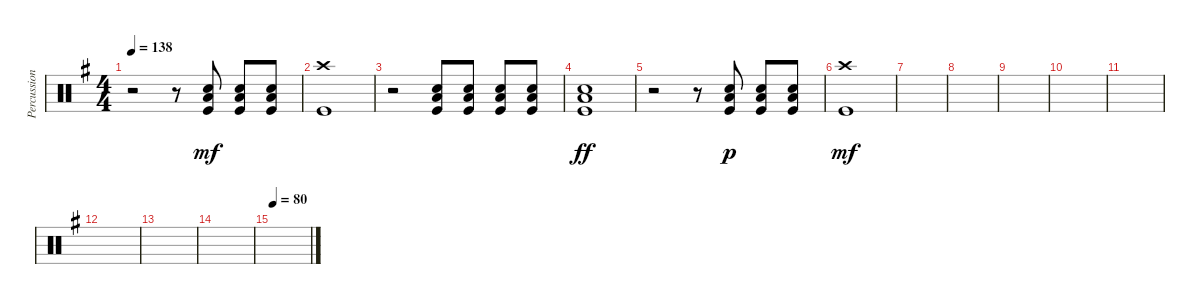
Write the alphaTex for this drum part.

\track ("Percussion" "Percussion") {instrument percussion}
\staff {score}
\articulation defaults
\ts (4 4)
\tempo 138
\clef neutral
\ks g
r.2{dy ff} r.8 ("Snare (hit) 2" "Low Floor Tom (hit)" "Kick (hit)").8{dy mf} ("Snare (hit) 2" "Low Floor Tom (hit)" "Kick (hit)").8 ("Snare (hit) 2" "Low Floor Tom (hit)" "Kick (hit)").8 |
("Crash high (hit)" "Kick (hit)").1 |
r.2 ("Snare (hit) 2" "Low Floor Tom (hit)" "Kick (hit)").8 ("Snare (hit) 2" "Low Floor Tom (hit)" "Kick (hit)").8 ("Snare (hit) 2" "Low Floor Tom (hit)" "Kick (hit)").8 ("Snare (hit) 2" "Low Floor Tom (hit)" "Kick (hit)").8 |
("Snare (hit) 2" "Low Floor Tom (hit)" "Kick (hit)").1{dy ff} |
r.2 r.8 ("Snare (hit) 2" "Low Floor Tom (hit)" "Kick (hit)").8{dy p} ("Snare (hit) 2" "Low Floor Tom (hit)" "Kick (hit)").8 ("Snare (hit) 2" "Low Floor Tom (hit)" "Kick (hit)").8 |
("Crash high (hit)" "Kick (hit)").1{dy mf} |
|
|
|
|
|
|
|
|
\tempo 80
